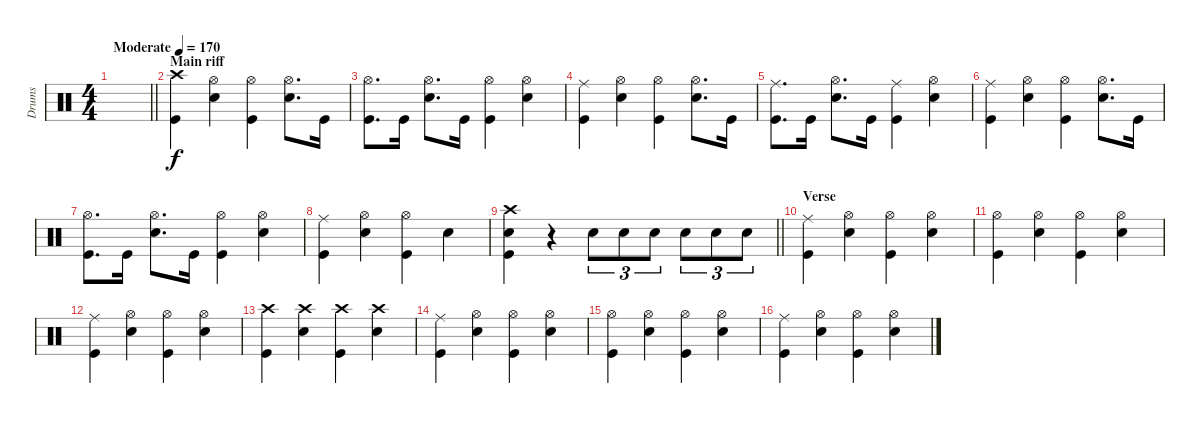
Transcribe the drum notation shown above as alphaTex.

\track ("Drums" "Drums") {instrument percussion}
\staff {score}
\articulation defaults
\ts (4 4)
\tempo (170 "Moderate")
\clef neutral
\barLineRight lightlight
\ks c
|
\section ("" "Main riff")
("Crash high (hit)" "Kick (hit)").4 ("Hi-Hat (open)" "Snare (hit) 2").4 ("Hi-Hat (open)" "Kick (hit)").4 ("Hi-Hat (open)" "Snare (hit) 2").8{d} "Kick (hit)".16 |
("Hi-Hat (open)" "Kick (hit)").8{d} "Kick (hit)".16 ("Hi-Hat (open)" "Snare (hit) 2").8{d} "Kick (hit)".16 ("Hi-Hat (open)" "Kick (hit)").4 ("Hi-Hat (open)" "Snare (hit) 2").4 |
("Ride (middle)" "Kick (hit)").4 ("Hi-Hat (open)" "Snare (hit) 2").4 ("Hi-Hat (open)" "Kick (hit)").4 ("Hi-Hat (open)" "Snare (hit) 2").8{d} "Kick (hit)".16 |
("Ride (middle)" "Kick (hit)").8{d} "Kick (hit)".16 ("Hi-Hat (open)" "Snare (hit) 2").8{d} "Kick (hit)".16 ("Ride (middle)" "Kick (hit)").4 ("Hi-Hat (open)" "Snare (hit) 2").4 |
("Ride (middle)" "Kick (hit)").4 ("Hi-Hat (open)" "Snare (hit) 2").4 ("Hi-Hat (open)" "Kick (hit)").4 ("Hi-Hat (open)" "Snare (hit) 2").8{d} "Kick (hit)".16 |
("Hi-Hat (open)" "Kick (hit)").8{d} "Kick (hit)".16 ("Hi-Hat (open)" "Snare (hit) 2").8{d} "Kick (hit)".16 ("Hi-Hat (open)" "Kick (hit)").4 ("Hi-Hat (open)" "Snare (hit) 2").4 |
("Ride (middle)" "Kick (hit)").4 ("Hi-Hat (open)" "Snare (hit) 2").4 ("Hi-Hat (open)" "Kick (hit)").4 "Snare (hit) 2".4 |
\barLineRight lightlight
("Crash high (hit)" "Snare (hit) 2" "Kick (hit)").4 r.4 "Snare (hit) 2".8{tu (3 2)} "Snare (hit) 2".8{tu (3 2)} "Snare (hit) 2".8{tu (3 2)} "Snare (hit) 2".8{tu (3 2)} "Snare (hit) 2".8{tu (3 2)} "Snare (hit) 2".8{tu (3 2)} |
\section ("" "Verse")
("Ride (middle)" "Kick (hit)").4 ("Hi-Hat (open)" "Snare (hit) 2").4 ("Hi-Hat (open)" "Kick (hit)").4 ("Hi-Hat (open)" "Snare (hit) 2").4 |
("Hi-Hat (open)" "Kick (hit)").4 ("Hi-Hat (open)" "Snare (hit) 2").4 ("Hi-Hat (open)" "Kick (hit)").4 ("Hi-Hat (open)" "Snare (hit) 2").4 |
("Ride (middle)" "Kick (hit)").4 ("Hi-Hat (open)" "Snare (hit) 2").4 ("Hi-Hat (open)" "Kick (hit)").4 ("Hi-Hat (open)" "Snare (hit) 2").4 |
("Crash high (hit)" "Kick (hit)").4 ("Crash high (hit)" "Snare (hit) 2").4 ("Crash high (hit)" "Kick (hit)").4 ("Crash high (hit)" "Snare (hit) 2").4 |
("Ride (middle)" "Kick (hit)").4 ("Hi-Hat (open)" "Snare (hit) 2").4 ("Hi-Hat (open)" "Kick (hit)").4 ("Hi-Hat (open)" "Snare (hit) 2").4 |
("Hi-Hat (open)" "Kick (hit)").4 ("Hi-Hat (open)" "Snare (hit) 2").4 ("Hi-Hat (open)" "Kick (hit)").4 ("Hi-Hat (open)" "Snare (hit) 2").4 |
("Ride (middle)" "Kick (hit)").4 ("Hi-Hat (open)" "Snare (hit) 2").4 ("Hi-Hat (open)" "Kick (hit)").4 ("Hi-Hat (open)" "Snare (hit) 2").4
